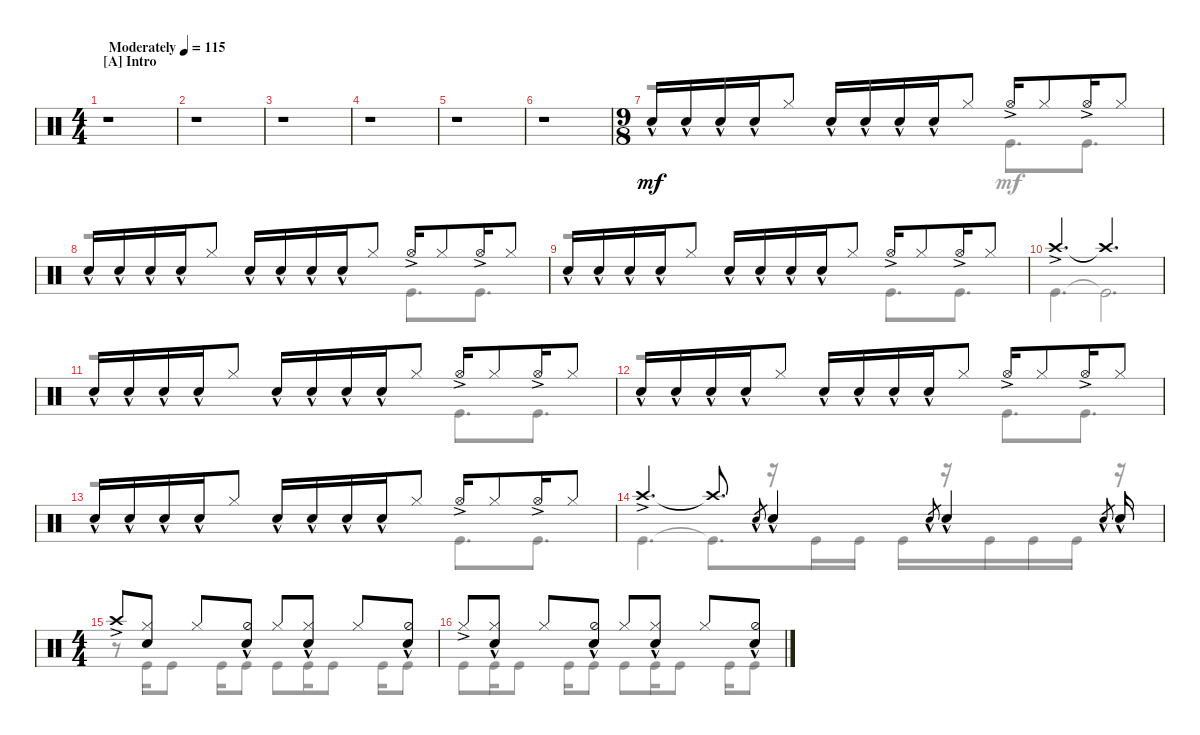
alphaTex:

\defaultSystemsLayout 4
\bracketExtendMode groupsimilarinstruments
\singleTrackTrackNamePolicy hidden
\multiTrackTrackNamePolicy hidden
\firstSystemTrackNameOrientation horizontal
\otherSystemsTrackNameOrientation horizontal
\track ("Maksim Udalov" "Drums") {instrument percussion}
\staff {score}
\articulation defaults
\voice
\ts (4 4)
\section ("A" "Intro")
\tempo (115 "Moderately")
\clef neutral
\scale
1.05675
\ks c
r.1{dy mf} |
\scale
0.943253 r.1 |
\scale
1.02648 r.1 |
\scale
0.973518 r.1 |
\scale
1.02648 r.1 |
\scale
0.973518 r.1 |
\ts (9 8)
\scale
1.05675 "Snare (hit) 2"{hac}.16 "Snare (hit) 2"{hac}.16 "Snare (hit) 2"{hac}.16 "Snare (hit) 2"{hac}.16 "Hi-Hat (closed)".8 "Snare (hit) 2"{hac}.16 "Snare (hit) 2"{hac}.16 "Snare (hit) 2"{hac}.16 "Snare (hit) 2"{hac}.16 "Hi-Hat (closed)".8 "Hi-Hat (open)"{ac}.16 "Hi-Hat (closed)".8 "Hi-Hat (open)"{ac}.16 "Hi-Hat (closed)".8 |
\scale
0.943253 "Snare (hit) 2"{hac}.16 "Snare (hit) 2"{hac}.16 "Snare (hit) 2"{hac}.16 "Snare (hit) 2"{hac}.16 "Hi-Hat (closed)".8 "Snare (hit) 2"{hac}.16 "Snare (hit) 2"{hac}.16 "Snare (hit) 2"{hac}.16 "Snare (hit) 2"{hac}.16 "Hi-Hat (closed)".8 "Hi-Hat (open)"{ac}.16 "Hi-Hat (closed)".8 "Hi-Hat (open)"{ac}.16 "Hi-Hat (closed)".8 |
\scale
1.02648 "Snare (hit) 2"{hac}.16 "Snare (hit) 2"{hac}.16 "Snare (hit) 2"{hac}.16 "Snare (hit) 2"{hac}.16 "Hi-Hat (closed)".8 "Snare (hit) 2"{hac}.16 "Snare (hit) 2"{hac}.16 "Snare (hit) 2"{hac}.16 "Snare (hit) 2"{hac}.16 "Hi-Hat (closed)".8 "Hi-Hat (open)"{ac}.16 "Hi-Hat (closed)".8 "Hi-Hat (open)"{ac}.16 "Hi-Hat (closed)".8 |
\scale
0.973518 "Crash high (hit)"{ac}.4{d} "Crash high (hit)"{t}.2{d} |
\scale
1.02648 "Snare (hit) 2"{hac}.16 "Snare (hit) 2"{hac}.16 "Snare (hit) 2"{hac}.16 "Snare (hit) 2"{hac}.16 "Hi-Hat (closed)".8 "Snare (hit) 2"{hac}.16 "Snare (hit) 2"{hac}.16 "Snare (hit) 2"{hac}.16 "Snare (hit) 2"{hac}.16 "Hi-Hat (closed)".8 "Hi-Hat (open)"{ac}.16 "Hi-Hat (closed)".8 "Hi-Hat (open)"{ac}.16 "Hi-Hat (closed)".8 |
\scale
0.973518 "Snare (hit) 2"{hac}.16 "Snare (hit) 2"{hac}.16 "Snare (hit) 2"{hac}.16 "Snare (hit) 2"{hac}.16 "Hi-Hat (closed)".8 "Snare (hit) 2"{hac}.16 "Snare (hit) 2"{hac}.16 "Snare (hit) 2"{hac}.16 "Snare (hit) 2"{hac}.16 "Hi-Hat (closed)".8 "Hi-Hat (open)"{ac}.16 "Hi-Hat (closed)".8 "Hi-Hat (open)"{ac}.16 "Hi-Hat (closed)".8 |
\scale
1.02648 "Snare (hit) 2"{hac}.16 "Snare (hit) 2"{hac}.16 "Snare (hit) 2"{hac}.16 "Snare (hit) 2"{hac}.16 "Hi-Hat (closed)".8 "Snare (hit) 2"{hac}.16 "Snare (hit) 2"{hac}.16 "Snare (hit) 2"{hac}.16 "Snare (hit) 2"{hac}.16 "Hi-Hat (closed)".8 "Hi-Hat (open)"{ac}.16 "Hi-Hat (closed)".8 "Hi-Hat (open)"{ac}.16 "Hi-Hat (closed)".8 |
\scale
0.973518 "Crash high (hit)"{ac}.4{d} "Crash high (hit)"{t}.8{d} "Snare (hit) 2"{hac}.8{gr} "Snare (hit) 2"{hac}.4 "Snare (hit) 2"{hac}.8{gr} "Snare (hit) 2"{hac}.4 "Snare (hit) 2"{hac}.8{gr} "Snare (hit) 2"{hac}.16 |
\ts (4 4)
\scale
1.05675 "Crash high (hit)"{ac}.8 ("Hi-Hat (closed)" "Snare (hit) 2").8 "Hi-Hat (closed)".8 ("Snare (hit) 2"{hac} "Hi-Hat (half)").8 "Hi-Hat (closed)".8 ("Hi-Hat (closed)" "Snare (hit) 2"{hac}).8 "Hi-Hat (closed)".8 ("Snare (hit) 2"{hac} "Hi-Hat (half)").8 |
\scale
0.943253 "Hi-Hat (closed)"{ac}.8 ("Hi-Hat (closed)" "Snare (hit) 2"{hac}).8 "Hi-Hat (closed)".8 ("Snare (hit) 2"{hac} "Hi-Hat (half)").8 "Hi-Hat (closed)".8 ("Hi-Hat (closed)" "Snare (hit) 2"{hac}).8 "Hi-Hat (closed)".8 ("Snare (hit) 2"{hac} "Hi-Hat (half)").8
\voice
\clef neutral
\ottava regular
\simile none
\scale
1.05675
\ks c
|
\scale
0.943253 |
\scale
1.02648 |
\scale
0.973518 |
\scale
1.02648 |
\scale
0.973518 |
\scale
1.05675 r.2{d} "Kick (hit)".8{d} "Kick (hit)".8{d} |
\scale
0.943253 r.2{d} "Kick (hit)".8{d} "Kick (hit)".8{d} |
\scale
1.02648 r.2{d} "Kick (hit)".8{d} "Kick (hit)".8{d} |
\scale
0.973518 "Kick (hit)".4{d} "Kick (hit)"{t}.2{d} |
\scale
1.02648 r.2{d} "Kick (hit)".8{d} "Kick (hit)".8{d} |
\scale
0.973518 r.2{d} "Kick (hit)".8{d} "Kick (hit)".8{d} |
\scale
1.02648 r.2{d} "Kick (hit)".8{d} "Kick (hit)".8{d} |
\scale
0.973518 "Kick (hit)".4{d} "Kick (hit)"{t}.8{d} r.16 "Kick (hit)".16 "Kick (hit)".16 "Kick (hit)".16 r.16 "Kick (hit)".16 "Kick (hit)".16 "Kick (hit)".16 r.16 |
\scale
1.05675 r.8 "Kick (hit)".16 "Kick (hit)".8 "Kick (hit)".16 "Kick (hit)".8 "Kick (hit)".8 "Kick (hit)".16 "Kick (hit)".8 "Kick (hit)".16 "Kick (hit)".8 |
\scale
0.943253 "Kick (hit)".8 "Kick (hit)".16 "Kick (hit)".8 "Kick (hit)".16 "Kick (hit)".8 "Kick (hit)".8 "Kick (hit)".16 "Kick (hit)".8 "Kick (hit)".16 "Kick (hit)".8
